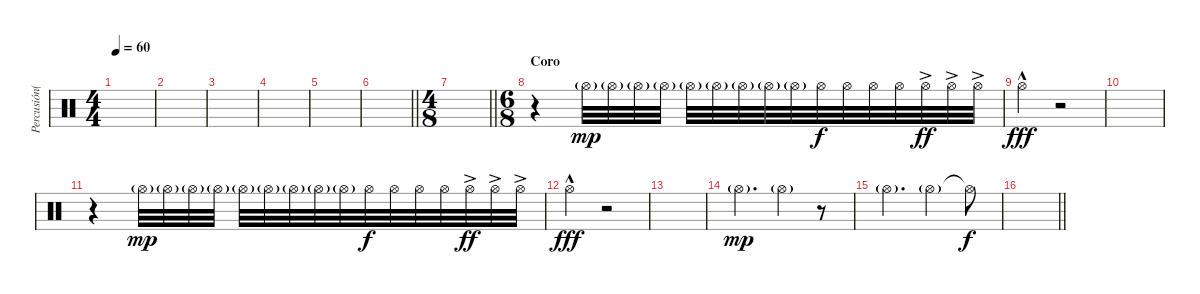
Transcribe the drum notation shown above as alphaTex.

\track ("Percusión(Sebastián)" "Percusión(") {instrument percussion}
\staff {score}
\articulation defaults
\ts (4 4)
\tempo 60
\clef neutral
\ks c
|
|
|
|
|
\barLineRight lightlight
|
\ts (4 8)
\section ("" "")
\barLineRight lightlight
|
\ts (6 8)
\section ("" "Coro")
r.4 "Hi-Hat (open)"{g}.32{dy mp} "Hi-Hat (open)"{g}.32 "Hi-Hat (open)"{g}.32 "Hi-Hat (open)"{g}.32 "Hi-Hat (open)"{g}.32 "Hi-Hat (open)"{g}.32 "Hi-Hat (open)"{g}.32 "Hi-Hat (open)"{g}.32 "Hi-Hat (open)"{g}.32 "Hi-Hat (open)".32{dy f} "Hi-Hat (open)".32 "Hi-Hat (open)".32 "Hi-Hat (open)".32 "Hi-Hat (open)"{ac}.32{dy ff} "Hi-Hat (open)"{ac}.32 "Hi-Hat (open)"{ac}.32 |
"Hi-Hat (open)"{hac}.4{dy fff} r.2 |
|
r.4 "Hi-Hat (open)"{g}.32{dy mp} "Hi-Hat (open)"{g}.32 "Hi-Hat (open)"{g}.32 "Hi-Hat (open)"{g}.32 "Hi-Hat (open)"{g}.32 "Hi-Hat (open)"{g}.32 "Hi-Hat (open)"{g}.32 "Hi-Hat (open)"{g}.32 "Hi-Hat (open)"{g}.32 "Hi-Hat (open)".32{dy f} "Hi-Hat (open)".32 "Hi-Hat (open)".32 "Hi-Hat (open)".32 "Hi-Hat (open)"{ac}.32{dy ff} "Hi-Hat (open)"{ac}.32 "Hi-Hat (open)"{ac}.32 |
"Hi-Hat (open)"{hac}.4{dy fff} r.2 |
|
"Hi-Hat (open)"{g}.4{d dy mp} "Hi-Hat (open)"{g}.4 r.8 |
"Hi-Hat (open)"{g}.4{d} "Hi-Hat (open)"{g}.4 "Hi-Hat (open)"{t}.8{dy f} |
\section ("" "")
\barLineRight lightlight
